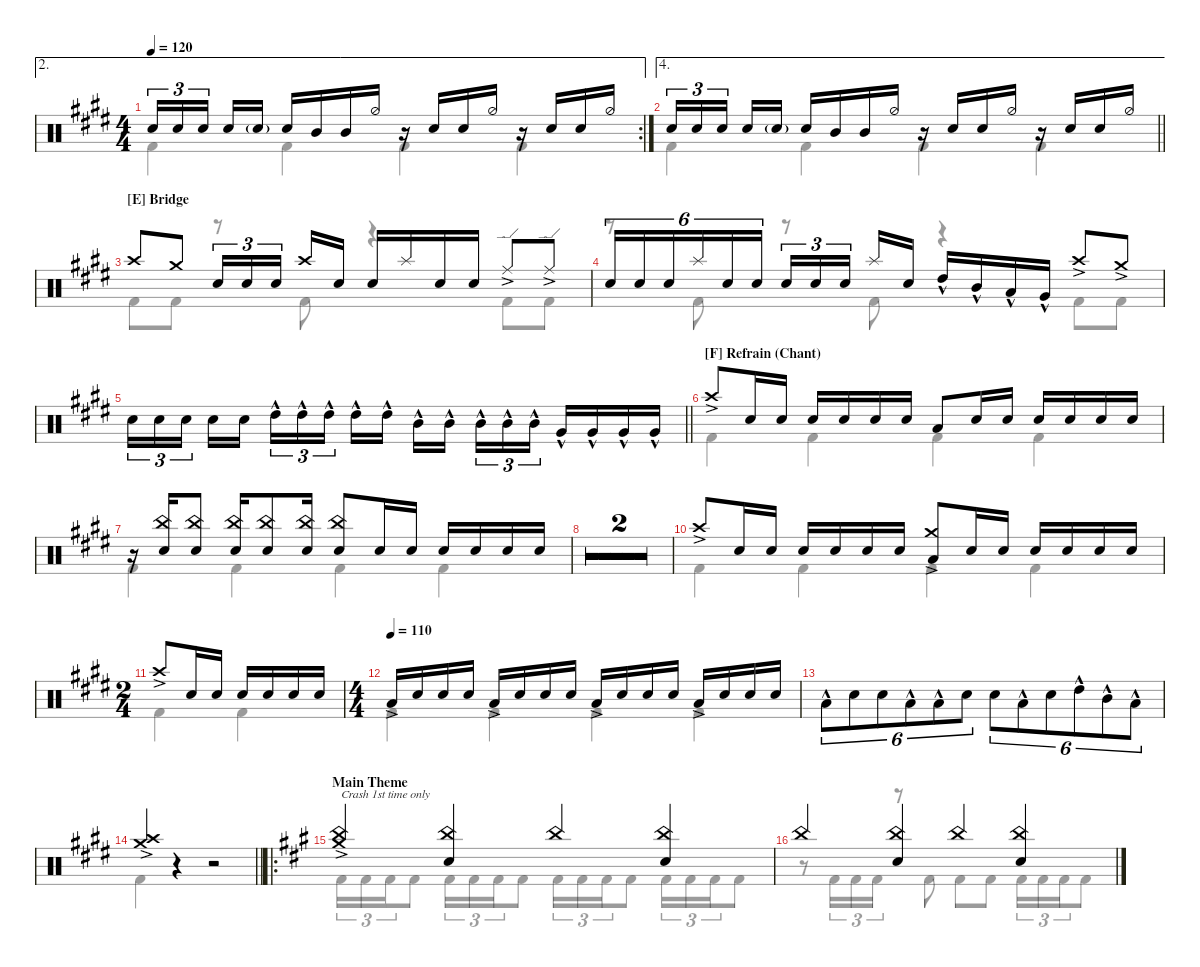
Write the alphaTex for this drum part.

\defaultSystemsLayout 4
\hideDynamics
\bracketExtendMode nobrackets
\singleTrackTrackNamePolicy hidden
\multiTrackTrackNamePolicy hidden
\firstSystemTrackNameMode fullname
\firstSystemTrackNameOrientation horizontal
\otherSystemsTrackNameOrientation horizontal
\track ("Drums" "Drums") {multiBarRest instrument percussion}
\staff {score}
\articulation defaults
\voice
\ae 2
\rc 2
\ts (4 4)
\tempo 120
\clef neutral
\ks e "Snare (hit) 2"{acc forcenatural}.16{tu (3 2) dy mf} "Snare (hit) 2"{acc forcenatural}.16{tu (3 2)} "Snare (hit) 2"{acc forcenatural}.16{tu (3 2) beam splitsecondary} "Snare (hit) 2"{acc forcenatural}.16 "Snare (hit) 2"{g acc forcenatural}.16 "Snare (hit) 2"{acc forcenatural}.16 "Mid Tom (hit)"{acc forcenatural}.16 "Mid Tom (hit)"{acc forcenatural}.16 "Hi-Hat (half)"{acc forcenatural}.16
r.16 "Snare (hit) 2"{acc forcenatural}.16 "Snare (hit) 2"{acc forcenatural}.16 "Hi-Hat (half)"{acc forcenatural}.16 r.16 "Snare (hit) 2"{acc forcenatural}.16 "Snare (hit) 2"{acc forcenatural}.16 "Hi-Hat (half)"{acc forcenatural}.16 |
\ae 4
\barLineRight lightlight "Snare (hit) 2"{acc forcenatural}.16{tu (3 2)} "Snare (hit) 2"{acc forcenatural}.16{tu (3 2)} "Snare (hit) 2"{acc forcenatural}.16{tu (3 2) beam splitsecondary} "Snare (hit) 2"{acc forcenatural}.16 "Snare (hit) 2"{g acc forcenatural}.16 "Snare (hit) 2"{acc forcenatural}.16 "Mid Tom (hit)"{acc forcenatural}.16 "Mid Tom (hit)"{acc forcenatural}.16 "Hi-Hat (half)"{acc forcenatural}.16
r.16 "Snare (hit) 2"{acc forcenatural}.16 "Snare (hit) 2"{acc forcenatural}.16 "Hi-Hat (half)"{acc forcenatural}.16 r.16 "Snare (hit) 2"{acc forcenatural}.16 "Snare (hit) 2"{acc forcenatural}.16 "Hi-Hat (half)"{acc forcenatural}.16 |
\section ("E" "Bridge")
"Crash high (hit)"{acc forcenatural}.8 "Crash medium (hit)"{acc forcenatural}.8 "Snare (hit) 2"{acc forcenatural}.16{tu (3 2)} "Snare (hit) 2"{acc forcenatural}.16{tu (3 2)} "Snare (hit) 2"{acc forcenatural}.16{tu (3 2) beam splitsecondary} "Crash high (hit)"{acc forcenatural}.16 "Snare (hit) 2"{acc forcenatural}.16 "Snare (hit) 2"{acc forcenatural}.16 "Splash (hit)"{acc forcenatural}.16 "Snare (hit) 2"{acc forcenatural}.16 "Snare (hit) 2"{acc forcenatural}.16 "Ride (edge)"{ac acc forcenatural}.8 "Ride (edge)"{ac acc forcenatural}.8 |
"Snare (hit) 2"{acc forcenatural}.16{tu (6 4)} "Snare (hit) 2"{acc forcenatural}.16{tu (6 4)} "Snare (hit) 2"{acc forcenatural}.16{tu (6 4) beam merge} "Splash (hit)"{acc forcenatural}.16{tu (6 4)} "Snare (hit) 2"{acc forcenatural}.16{tu (6 4)} "Snare (hit) 2"{acc forcenatural}.16{tu (6 4)} "Snare (hit) 2"{acc forcenatural}.16{tu (3 2)} "Snare (hit) 2"{acc forcenatural}.16{tu (3 2)} "Snare (hit) 2"{acc forcenatural}.16{tu (3 2) beam splitsecondary} "Splash (hit)"{acc forcenatural}.16 "Snare (hit) 2"{acc forcenatural}.16 "High Tom (hit)"{hac acc forcenatural}.16 "Mid Tom (hit)"{hac acc forcenatural}.16 "Low Tom (hit)"{hac acc forcenatural}.16 "Very Low Tom (hit)"{hac acc forcenatural}.16 "Crash high (hit)"{ac acc forcenatural}.8 "Crash medium (hit)"{ac acc forcenatural}.8 |
\barLineRight lightlight "Snare (hit) 2"{acc forcenatural}.16{tu (3 2)} "Snare (hit) 2"{acc forcenatural}.16{tu (3 2)} "Snare (hit) 2"{acc forcenatural}.16{tu (3 2) beam splitsecondary} "Snare (hit) 2"{acc forcenatural}.16 "Snare (hit) 2"{acc forcenatural}.16 "High Tom (hit)"{hac acc forcenatural}.16{tu (3 2)} "High Tom (hit)"{hac acc forcenatural}.16{tu (3 2)} "High Tom (hit)"{hac acc forcenatural}.16{tu (3 2) beam splitsecondary} "High Tom (hit)"{hac acc forcenatural}.16 "High Tom (hit)"{hac acc forcenatural}.16 "Mid Tom (hit)"{hac acc forcenatural}.16 "Mid Tom (hit)"{hac acc forcenatural}.16{beam splitsecondary} "Mid Tom (hit)"{hac acc forcenatural}.16{tu (3 2)} "Mid Tom (hit)"{hac acc forcenatural}.16{tu (3 2)} "Mid Tom (hit)"{hac acc forcenatural}.16{tu (3 2)} "Very Low Tom (hit)"{hac acc forcenatural}.16 "Very Low Tom (hit)"{hac acc forcenatural}.16 "Very Low Tom (hit)"{hac acc forcenatural}.16 "Very Low Tom (hit)"{hac acc forcenatural}.16
|
\section ("F" "Refrain (Chant)")
"Crash high (hit)"{ac acc forcenatural}.8 "Snare (hit) 2"{acc forcenatural}.16 "Snare (hit) 2"{acc forcenatural}.16 "Snare (hit) 2"{acc forcenatural}.16 "Snare (hit) 2"{acc forcenatural}.16 "Snare (hit) 2"{acc forcenatural}.16 "Snare (hit) 2"{acc forcenatural}.16 "Low Tom (hit)"{acc forcenatural}.8 "Snare (hit) 2"{acc forcenatural}.16 "Snare (hit) 2"{acc forcenatural}.16 "Snare (hit) 2"{acc forcenatural}.16 "Snare (hit) 2"{acc forcenatural}.16 "Snare (hit) 2"{acc forcenatural}.16 "Snare (hit) 2"{acc forcenatural}.16 |
r.16 ("Snare (hit) 2"{acc forcenatural} "China (hit)"{acc forcenatural}).16 ("Snare (hit) 2"{acc forcenatural} "China (hit)"{acc forcenatural}).8 ("Snare (hit) 2"{acc forcenatural} "China (hit)"{acc forcenatural}).16 ("Snare (hit) 2"{acc forcenatural} "China (hit)"{acc forcenatural}).8 ("Snare (hit) 2"{acc forcenatural} "China (hit)"{acc forcenatural}).16 ("Snare (hit) 2"{acc forcenatural} "China (hit)"{acc forcenatural}).8 "Snare (hit) 2"{acc forcenatural}.16 "Snare (hit) 2"{acc forcenatural}.16 "Snare (hit) 2"{acc forcenatural}.16 "Snare (hit) 2"{acc forcenatural}.16 "Snare (hit) 2"{acc forcenatural}.16 "Snare (hit) 2"{acc forcenatural}.16 |
\simile firstofdouble
|
\simile secondofdouble
|
\simile none "Crash high (hit)"{ac acc forcenatural}.8 "Snare (hit) 2"{acc forcenatural}.16 "Snare (hit) 2"{acc forcenatural}.16 "Snare (hit) 2"{acc forcenatural}.16 "Snare (hit) 2"{acc forcenatural}.16 "Snare (hit) 2"{acc forcenatural}.16 "Snare (hit) 2"{acc forcenatural}.16
("Low Tom (hit)"{acc forcenatural} "Crash medium (hit)"{ac acc forcenatural}).8 "Snare (hit) 2"{acc forcenatural}.16 "Snare (hit) 2"{acc forcenatural}.16 "Snare (hit) 2"{acc forcenatural}.16 "Snare (hit) 2"{acc forcenatural}.16 "Snare (hit) 2"{acc forcenatural}.16 "Snare (hit) 2"{acc forcenatural}.16 |
\ts (2 4)
\beaming (8 2 2 2 2)
"Crash high (hit)"{ac acc forcenatural}.8 "Snare (hit) 2"{acc forcenatural}.16 "Snare (hit) 2"{acc forcenatural}.16 "Snare (hit) 2"{acc forcenatural}.16 "Snare (hit) 2"{acc forcenatural}.16 "Snare (hit) 2"{acc forcenatural}.16 "Snare (hit) 2"{acc forcenatural}.16 |
\ts (4 4)
\beaming (8 2 2 2 2)
\tempo (110)
"Low Tom (hit)"{ac acc forcenatural}.16 "Snare (hit) 2"{acc forcenatural}.16 "Snare (hit) 2"{acc forcenatural}.16 "Snare (hit) 2"{acc forcenatural}.16 "Low Tom (hit)"{ac acc forcenatural}.16 "Snare (hit) 2"{acc forcenatural}.16 "Snare (hit) 2"{acc forcenatural}.16 "Snare (hit) 2"{acc forcenatural}.16 "Low Tom (hit)"{ac acc forcenatural}.16 "Snare (hit) 2"{acc forcenatural}.16 "Snare (hit) 2"{acc forcenatural}.16 "Snare (hit) 2"{acc forcenatural}.16 "Low Tom (hit)"{ac acc forcenatural}.16 "Snare (hit) 2"{acc forcenatural}.16 "Snare (hit) 2"{acc forcenatural}.16 "Snare (hit) 2"{acc forcenatural}.16 |
"Low Tom (hit)"{hac acc forcenatural}.8{tu (6 4)} "Snare (hit) 2"{acc forcenatural}.8{tu (6 4)} "Snare (hit) 2"{acc forcenatural}.8{tu (6 4)} "Low Tom (hit)"{hac acc forcenatural}.8{tu (6 4)} "Low Tom (hit)"{hac acc forcenatural}.8{tu (6 4)} "Snare (hit) 2"{acc forcenatural}.8{tu (6 4)} "Snare (hit) 2"{acc forcenatural}.8{tu (6 4)} "Low Tom (hit)"{hac acc forcenatural}.8{tu (6 4)} "Snare (hit) 2"{acc forcenatural}.8{tu (6 4)} "High Tom (hit)"{hac acc forcenatural}.8{tu (6 4)} "Mid Tom (hit)"{hac acc forcenatural}.8{tu (6 4)} "Low Tom (hit)"{hac acc forcenatural}.8{tu (6 4)} |
\barLineRight lightlight
("Crash medium (hit)"{ac acc forcenatural} "Crash high (hit)"{ac acc forcenatural}).4 r.4 r.2 |
\ro
\section ("" "Main Theme")
\ks f#minor
("Crash medium (hit)"{ac acc forcenatural} "China (hit)"{acc forcenatural}).4{txt "Crash 1st time only"} ("China (hit)"{acc forcenatural} "Snare (hit) 2"{acc forcenatural}).4 "China (hit)"{acc forcenatural}.4 ("China (hit)"{acc forcenatural} "Snare (hit) 2"{acc forcenatural}).4 |
"China (hit)"{acc forcenatural}.4 ("China (hit)"{acc forcenatural} "Snare (hit) 2"{acc forcenatural}).4 "China (hit)"{acc forcenatural}.4 ("China (hit)"{acc forcenatural} "Snare (hit) 2"{acc forcenatural}).4
\voice
\clef neutral
\ottava regular
\simile none
\ks e "Kick (hit) 2"{acc forcenatural}.4{dy mf} "Kick (hit) 2"{acc forcenatural}.4 "Kick (hit) 2"{acc forcenatural}.4 "Kick (hit) 2"{acc forcenatural}.4
|
\barLineRight lightlight "Kick (hit) 2"{acc forcenatural}.4 "Kick (hit) 2"{acc forcenatural}.4 "Kick (hit) 2"{acc forcenatural}.4 "Kick (hit) 2"{acc forcenatural}.4
|
"Kick (hit) 2"{acc forcenatural}.8 "Kick (hit) 2"{acc forcenatural}.8 r.8 "Kick (hit) 2"{acc forcenatural}.8 r.4 "Kick (hit) 2"{acc forcenatural}.8 "Kick (hit) 2"{acc forcenatural}.8 |
r.8 "Kick (hit) 2"{acc forcenatural}.8 r.8 "Kick (hit) 2"{acc forcenatural}.8 r.4 "Kick (hit) 2"{acc forcenatural}.8 "Kick (hit) 2"{acc forcenatural}.8 |
\barLineRight lightlight
|
"Kick (hit) 2"{acc forcenatural}.4 "Kick (hit) 2"{acc forcenatural}.4 "Kick (hit) 2"{acc forcenatural}.4 "Kick (hit) 2"{acc forcenatural}.4 |
"Kick (hit) 2"{acc forcenatural}.4 "Kick (hit) 2"{acc forcenatural}.4 "Kick (hit) 2"{acc forcenatural}.4 "Kick (hit) 2"{acc forcenatural}.4 |
\simile firstofdouble
|
\simile secondofdouble
|
\simile none "Kick (hit) 2"{acc forcenatural}.4 "Kick (hit) 2"{acc forcenatural}.4 "Kick (hit) 2"{acc forcenatural}.4 "Kick (hit) 2"{acc forcenatural}.4
|
"Kick (hit) 2"{acc forcenatural}.4 "Kick (hit) 2"{acc forcenatural}.4 |
"Kick (hit) 2"{acc forcenatural}.4 "Kick (hit) 2"{acc forcenatural}.4 "Kick (hit) 2"{acc forcenatural}.4 "Kick (hit) 2"{acc forcenatural}.4 |
|
\barLineRight lightlight "Kick (hit) 2"{acc forcenatural}.4
r.4 r.2 |
\ks f#minor "Kick (hit) 2"{acc forcenatural}.16{tu (3 2)} "Kick (hit) 2"{acc forcenatural}.16{tu (3 2)} "Kick (hit) 2"{acc forcenatural}.16{tu (3 2) beam merge} "Kick (hit) 2"{acc forcenatural}.8 "Kick (hit) 2"{acc forcenatural}.16{tu (3 2)} "Kick (hit) 2"{acc forcenatural}.16{tu (3 2)} "Kick (hit) 2"{acc forcenatural}.16{tu (3 2) beam merge} "Kick (hit) 2"{acc forcenatural}.8 "Kick (hit) 2"{acc forcenatural}.16{tu (3 2)} "Kick (hit) 2"{acc forcenatural}.16{tu (3 2)} "Kick (hit) 2"{acc forcenatural}.16{tu (3 2) beam merge} "Kick (hit) 2"{acc forcenatural}.8 "Kick (hit) 2"{acc forcenatural}.16{tu (3 2)} "Kick (hit) 2"{acc forcenatural}.16{tu (3 2)} "Kick (hit) 2"{acc forcenatural}.16{tu (3 2) beam merge} "Kick (hit) 2"{acc forcenatural}.8
|
r.8 "Kick (hit) 2"{acc forcenatural}.16{tu (3 2)} "Kick (hit) 2"{acc forcenatural}.16{tu (3 2)} "Kick (hit) 2"{acc forcenatural}.16{tu (3 2)} r.8 "Kick (hit) 2"{acc forcenatural}.8 "Kick (hit) 2"{acc forcenatural}.8 "Kick (hit) 2"{acc forcenatural}.8 "Kick (hit) 2"{acc forcenatural}.16{tu (3 2)} "Kick (hit) 2"{acc forcenatural}.16{tu (3 2)} "Kick (hit) 2"{acc forcenatural}.16{tu (3 2) beam merge} "Kick (hit) 2"{acc forcenatural}.8
